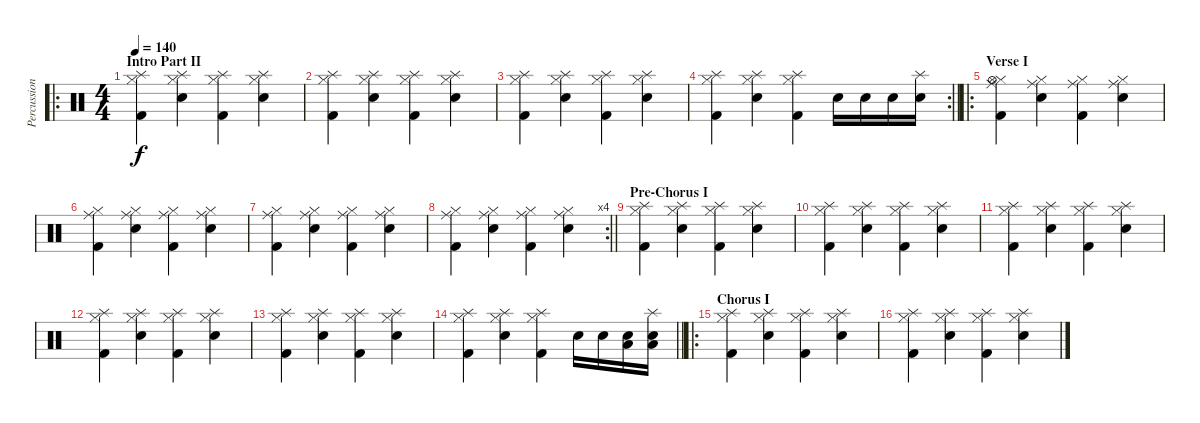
\track ("Percussion" "Percussion") {instrument percussion}
\staff {score}
\articulation defaults
\ro
\ts (4 4)
\section ("" "Intro Part II")
\tempo 140
\clef neutral
\ks c
("Kick (hit) 2" "Hi-Hat (closed)" "Splash (hit)").4{dy f} ("Hi-Hat (closed)" "Electric Snare (hit)" "Splash (hit)").4 ("Kick (hit) 2" "Hi-Hat (closed)" "Splash (hit)").4 ("Hi-Hat (closed)" "Electric Snare (hit)" "Splash (hit)").4 |
("Kick (hit) 2" "Hi-Hat (closed)" "Splash (hit)").4 ("Hi-Hat (closed)" "Electric Snare (hit)" "Splash (hit)").4 ("Kick (hit) 2" "Hi-Hat (closed)" "Splash (hit)").4 ("Hi-Hat (closed)" "Electric Snare (hit)" "Splash (hit)").4 |
("Kick (hit) 2" "Hi-Hat (closed)" "Splash (hit)").4 ("Hi-Hat (closed)" "Electric Snare (hit)" "Splash (hit)").4 ("Kick (hit) 2" "Hi-Hat (closed)" "Splash (hit)").4 ("Hi-Hat (closed)" "Electric Snare (hit)" "Splash (hit)").4 |
\rc 2
\barLineRight lightlight
("Kick (hit) 2" "Hi-Hat (closed)" "Splash (hit)").4 ("Hi-Hat (closed)" "Electric Snare (hit)" "Splash (hit)").4 ("Kick (hit) 2" "Hi-Hat (closed)" "Splash (hit)").4 "Electric Snare (hit)".16 "Electric Snare (hit)".16 "Electric Snare (hit)".16 ("Electric Snare (hit)" "Splash (hit)").16 |
\ro
\section ("" "Verse I")
("Kick (hit) 2" "Hi-Hat (closed)" "Ride (middle)" "Hi-Hat (open)").4 ("Hi-Hat (closed)" "Electric Snare (hit)" "Ride (middle)").4 ("Kick (hit) 2" "Hi-Hat (closed)" "Ride (middle)").4 ("Hi-Hat (closed)" "Electric Snare (hit)" "Ride (middle)").4 |
("Kick (hit) 2" "Hi-Hat (closed)" "Ride (middle)").4 ("Hi-Hat (closed)" "Electric Snare (hit)" "Ride (middle)").4 ("Kick (hit) 2" "Hi-Hat (closed)" "Ride (middle)").4 ("Hi-Hat (closed)" "Electric Snare (hit)" "Ride (middle)").4 |
("Kick (hit) 2" "Hi-Hat (closed)" "Ride (middle)").4 ("Hi-Hat (closed)" "Electric Snare (hit)" "Ride (middle)").4 ("Kick (hit) 2" "Hi-Hat (closed)" "Ride (middle)").4 ("Hi-Hat (closed)" "Electric Snare (hit)" "Ride (middle)").4 |
\rc 4
\barLineRight lightlight
("Kick (hit) 2" "Hi-Hat (closed)" "Ride (middle)").4 ("Hi-Hat (closed)" "Electric Snare (hit)" "Ride (middle)").4 ("Kick (hit) 2" "Hi-Hat (closed)" "Ride (middle)").4 ("Hi-Hat (closed)" "Electric Snare (hit)" "Ride (middle)").4 |
\section ("" "Pre-Chorus I")
("Kick (hit) 2" "Hi-Hat (closed)" "Splash (hit)").4 ("Hi-Hat (closed)" "Electric Snare (hit)" "Splash (hit)").4 ("Kick (hit) 2" "Hi-Hat (closed)" "Splash (hit)").4 ("Hi-Hat (closed)" "Electric Snare (hit)" "Splash (hit)").4 |
("Kick (hit) 2" "Hi-Hat (closed)" "Splash (hit)").4 ("Hi-Hat (closed)" "Electric Snare (hit)" "Splash (hit)").4 ("Kick (hit) 2" "Hi-Hat (closed)" "Splash (hit)").4 ("Hi-Hat (closed)" "Electric Snare (hit)" "Splash (hit)").4 |
("Kick (hit) 2" "Hi-Hat (closed)" "Splash (hit)").4 ("Hi-Hat (closed)" "Electric Snare (hit)" "Splash (hit)").4 ("Kick (hit) 2" "Hi-Hat (closed)" "Splash (hit)").4 ("Hi-Hat (closed)" "Electric Snare (hit)" "Splash (hit)").4 |
("Kick (hit) 2" "Hi-Hat (closed)" "Splash (hit)").4 ("Hi-Hat (closed)" "Electric Snare (hit)" "Splash (hit)").4 ("Kick (hit) 2" "Hi-Hat (closed)" "Splash (hit)").4 ("Hi-Hat (closed)" "Electric Snare (hit)" "Splash (hit)").4 |
("Kick (hit) 2" "Hi-Hat (closed)" "Splash (hit)").4 ("Hi-Hat (closed)" "Electric Snare (hit)" "Splash (hit)").4 ("Kick (hit) 2" "Hi-Hat (closed)" "Splash (hit)").4 ("Hi-Hat (closed)" "Electric Snare (hit)" "Splash (hit)").4 |
\barLineRight lightlight
("Kick (hit) 2" "Hi-Hat (closed)" "Splash (hit)").4 ("Hi-Hat (closed)" "Electric Snare (hit)" "Splash (hit)").4 ("Kick (hit) 2" "Hi-Hat (closed)" "Splash (hit)").4 "Electric Snare (hit)".16 "Electric Snare (hit)".16 ("Electric Snare (hit)" "Low Tom (hit)").16 ("Electric Snare (hit)" "Low Tom (hit)" "Splash (hit)").16 |
\ro
\section ("" "Chorus I")
("Kick (hit) 2" "Hi-Hat (closed)" "Splash (hit)").4 ("Hi-Hat (closed)" "Electric Snare (hit)" "Splash (hit)").4 ("Kick (hit) 2" "Hi-Hat (closed)" "Splash (hit)").4 ("Hi-Hat (closed)" "Electric Snare (hit)" "Splash (hit)").4 |
("Kick (hit) 2" "Hi-Hat (closed)" "Splash (hit)").4 ("Hi-Hat (closed)" "Electric Snare (hit)" "Splash (hit)").4 ("Kick (hit) 2" "Hi-Hat (closed)" "Splash (hit)").4 ("Hi-Hat (closed)" "Electric Snare (hit)" "Splash (hit)").4
